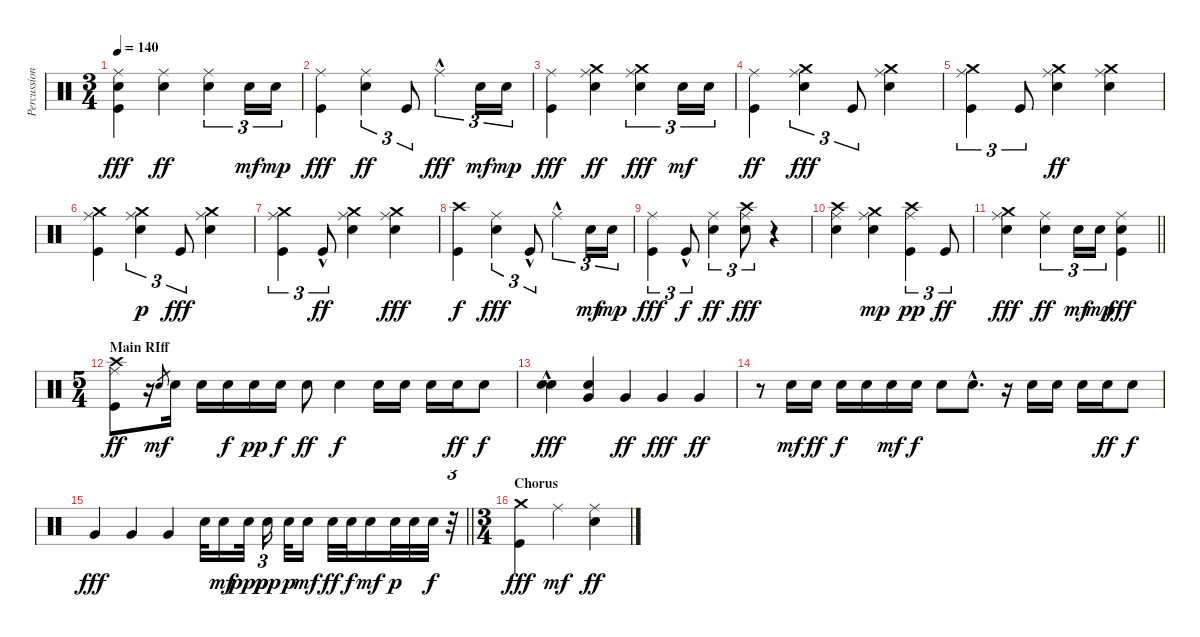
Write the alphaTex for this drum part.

\track ("Percussion" "Percussion") {instrument percussion}
\staff {score}
\articulation defaults
\ts (3 4)
\tempo 140
\clef neutral
\ks c
("Electric Snare (hit)" "Kick (hit)" "Ride (middle)").4{dy fff} ("Electric Snare (hit)" "Ride (middle)").4{dy ff} ("Electric Snare (hit)" "Ride (middle)").4{tu (3 2)} "Electric Snare (hit)".16{tu (3 2) dy mf} "Electric Snare (hit)".16{tu (3 2) dy mp} |
("Ride (middle)" "Kick (hit)").4{dy fff} ("Electric Snare (hit)" "Ride (middle)").4{tu (3 2) dy ff} "Kick (hit)".8{tu (3 2)} "Ride (middle)"{hac}.4{tu (3 2) dy fff} "Electric Snare (hit)".16{tu (3 2) dy mf} "Electric Snare (hit)".16{tu (3 2) dy mp} |
("Ride (middle)" "Kick (hit)").4{dy fff} ("Crash medium (hit)" "Electric Snare (hit)" "Ride (middle)").4{dy ff} ("Crash medium (hit)" "Electric Snare (hit)" "Ride (middle)").4{tu (3 2) dy fff} "Electric Snare (hit)".16{tu (3 2) dy mf} "Electric Snare (hit)".16{tu (3 2)} |
("Ride (middle)" "Kick (hit)").4{dy ff} ("Crash medium (hit)" "Electric Snare (hit)" "Ride (middle)").4{tu (3 2) dy fff} "Kick (hit)".8{tu (3 2)} ("Crash medium (hit)" "Electric Snare (hit)" "Ride (middle)").4 |
("Crash medium (hit)" "Kick (hit)" "Ride (middle)").4{tu (3 2)} "Kick (hit)".8{tu (3 2)} ("Electric Snare (hit)" "Crash medium (hit)" "Ride (middle)").4{dy ff} ("Crash medium (hit)" "Electric Snare (hit)" "Ride (middle)").4 |
("Crash medium (hit)" "Ride (middle)" "Kick (hit)").4 ("Electric Snare (hit)" "Crash medium (hit)" "Ride (middle)").4{tu (3 2) dy p} "Kick (hit)".8{tu (3 2) dy fff} ("Crash medium (hit)" "Ride (middle)" "Electric Snare (hit)").4 |
("Crash medium (hit)" "Ride (middle)" "Kick (hit)").4{tu (3 2)} "Kick (hit)"{hac}.8{tu (3 2) dy ff} ("Electric Snare (hit)" "Crash medium (hit)" "Ride (middle)").4 ("Crash medium (hit)" "Ride (middle)" "Electric Snare (hit)").4{dy fff} |
("Kick (hit)" "Crash high (hit)").4{dy f} ("Electric Snare (hit)" "Ride (middle)").4{tu (3 2) dy fff} "Kick (hit)"{hac}.8{tu (3 2)} "Ride (middle)"{hac}.4{tu (3 2)} "Electric Snare (hit)".16{tu (3 2) dy mf} "Electric Snare (hit)".16{tu (3 2) dy mp} |
("Ride (middle)" "Kick (hit)").4{tu (3 2) dy fff} "Kick (hit)"{hac}.8{tu (3 2) dy f} ("Electric Snare (hit)" "Ride (middle)").4{tu (3 2) dy ff} ("Crash high (hit)" "Electric Snare (hit)" "Ride (middle)").8{tu (3 2) dy fff} r.4 |
("Crash high (hit)" "Ride (middle)" "Electric Snare (hit)").4 ("Electric Snare (hit)" "Ride (middle)" "Crash medium (hit)").4{dy mp} ("Ride (middle)" "Kick (hit)" "Crash high (hit)").4{tu (3 2) dy pp} "Kick (hit)".8{tu (3 2) dy ff} |
\barLineRight lightlight
("Crash medium (hit)" "Ride (middle)" "Electric Snare (hit)").4{dy fff} ("Electric Snare (hit)" "Ride (middle)").4{tu (3 2) dy ff} "Electric Snare (hit)".16{tu (3 2) dy mf} "Electric Snare (hit)".16{tu (3 2) dy mp} ("Electric Snare (hit)" "Ride (middle)" "Kick (hit)").4{dy fff} |
\ts (5 4)
\section ("" "Main RIff")
("Crash high (hit)" "Kick (hit)" "Ride (middle)").8{dy ff} r.16 "Electric Snare (hit)".8{gr dy mf} "Electric Snare (hit)".16 "Electric Snare (hit)".16 "Electric Snare (hit)".16{dy f} "Electric Snare (hit)".16{dy pp} "Electric Snare (hit)".16{dy f} "Electric Snare (hit)".8{dy ff} "Electric Snare (hit)".4{dy f} "Electric Snare (hit)".16 "Electric Snare (hit)".16 "Electric Snare (hit)".16 "Electric Snare (hit)".16{dy ff} "Electric Snare (hit)".8{dy f} |
("Electric Snare (hit)" "Electric Snare (hit)"{hac}).4{dy fff} ("Very Low Tom (hit)" "Electric Snare (hit)").4 "Very Low Tom (hit)".4{dy ff} "Very Low Tom (hit)".4{dy fff} "Very Low Tom (hit)".4{dy ff} |
r.8 "Electric Snare (hit)".16{dy mf} "Electric Snare (hit)".16{dy ff} "Electric Snare (hit)".16{dy f} "Electric Snare (hit)".16 "Electric Snare (hit)".16{dy mf} "Electric Snare (hit)".16{dy f} "Electric Snare (hit)".8 "Electric Snare (hit)"{hac}.8{d} r.16 "Electric Snare (hit)".16 "Electric Snare (hit)".16 "Electric Snare (hit)".16 "Electric Snare (hit)".16{dy ff} "Electric Snare (hit)".8{dy f} |
\barLineRight lightlight "Very Low Tom (hit)".4{dy fff} "Very Low Tom (hit)".4 "Very Low Tom (hit)".4 "Electric Snare (hit)".32 "Electric Snare (hit)".16{dy mf} "Electric Snare (hit)".32{dy ppp} "Electric Snare (hit)".16{tu (3 2) dy pp} "Electric Snare (hit)".32{dy p} "Electric Snare (hit)".16{dy mf} "Electric Snare (hit)".32{dy ff} "Electric Snare (hit)".32{dy f} "Electric Snare (hit)".16{dy mf} "Electric Snare (hit)".32{dy p} "Electric Snare (hit)".32 "Electric Snare (hit)".32{dy f}
r.32{tu (3 2)} |
\ts (3 4)
\section ("" "Chorus")
("Kick (hit)" "Crash medium (hit)").4{dy fff} "Ride (middle)".4{dy mf} ("Ride (middle)" "Electric Snare (hit)").4{dy ff}
